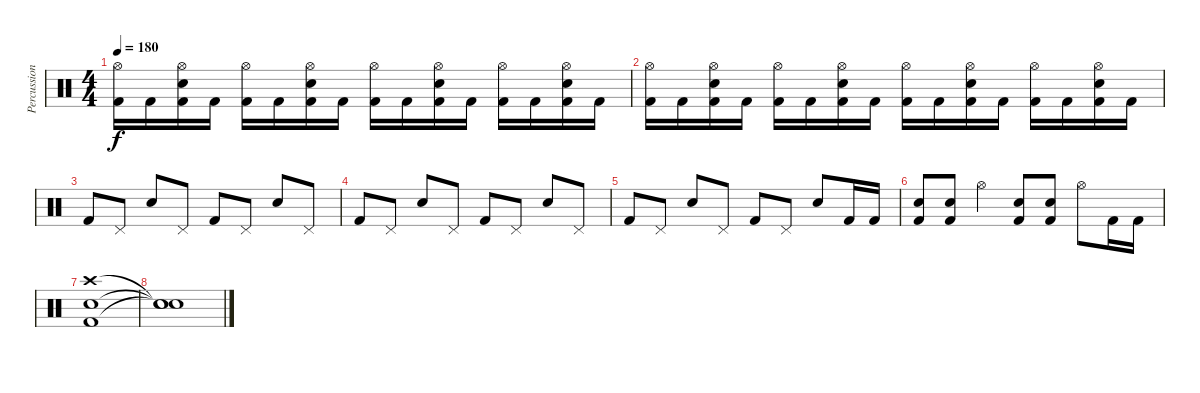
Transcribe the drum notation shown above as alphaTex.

\track ("Percussion" "Percussion") {instrument percussion}
\staff {score}
\articulation defaults
\ts (4 4)
\tempo 180
\clef neutral
\ks c
("Hi-Hat (open)" "Kick (hit) 2").16{dy f} "Kick (hit) 2".16 ("Hi-Hat (open)" "Electric Snare (hit)" "Kick (hit) 2").16 "Kick (hit) 2".16 ("Hi-Hat (open)" "Kick (hit) 2").16 "Kick (hit) 2".16 ("Hi-Hat (open)" "Electric Snare (hit)" "Kick (hit) 2").16 "Kick (hit) 2".16 ("Hi-Hat (open)" "Kick (hit) 2").16 "Kick (hit) 2".16 ("Hi-Hat (open)" "Electric Snare (hit)" "Kick (hit) 2").16 "Kick (hit) 2".16 ("Hi-Hat (open)" "Kick (hit) 2").16 "Kick (hit) 2".16 ("Hi-Hat (open)" "Electric Snare (hit)" "Kick (hit) 2").16 "Kick (hit) 2".16 |
("Hi-Hat (open)" "Kick (hit) 2").16 "Kick (hit) 2".16 ("Hi-Hat (open)" "Electric Snare (hit)" "Kick (hit) 2").16 "Kick (hit) 2".16 ("Hi-Hat (open)" "Kick (hit) 2").16 "Kick (hit) 2".16 ("Hi-Hat (open)" "Electric Snare (hit)" "Kick (hit) 2").16 "Kick (hit) 2".16 ("Hi-Hat (open)" "Kick (hit) 2").16 "Kick (hit) 2".16 ("Hi-Hat (open)" "Electric Snare (hit)" "Kick (hit) 2").16 "Kick (hit) 2".16 ("Hi-Hat (open)" "Kick (hit) 2").16 "Kick (hit) 2".16 ("Hi-Hat (open)" "Electric Snare (hit)" "Kick (hit) 2").16 "Kick (hit) 2".16 |
"Kick (hit) 2".8 "Pedal Hi-Hat (hit)".8 "Electric Snare (hit)".8 "Pedal Hi-Hat (hit)".8 "Kick (hit) 2".8 "Pedal Hi-Hat (hit)".8 "Electric Snare (hit)".8 "Pedal Hi-Hat (hit)".8 |
"Kick (hit) 2".8 "Pedal Hi-Hat (hit)".8 "Electric Snare (hit)".8 "Pedal Hi-Hat (hit)".8 "Kick (hit) 2".8 "Pedal Hi-Hat (hit)".8 "Electric Snare (hit)".8 "Pedal Hi-Hat (hit)".8 |
"Kick (hit) 2".8 "Pedal Hi-Hat (hit)".8 "Electric Snare (hit)".8 "Pedal Hi-Hat (hit)".8 "Kick (hit) 2".8 "Pedal Hi-Hat (hit)".8 "Electric Snare (hit)".8 "Kick (hit) 2".16 "Kick (hit) 2".16 |
("Electric Snare (hit)" "Kick (hit) 2").8 ("Electric Snare (hit)" "Kick (hit) 2").8 "Hi-Hat (open)".4 ("Electric Snare (hit)" "Kick (hit) 2").8 ("Electric Snare (hit)" "Kick (hit) 2").8 "Hi-Hat (open)".8 "Kick (hit) 2".16 "Kick (hit) 2".16 |
("Crash high (hit)" "Electric Snare (hit)" "Kick (hit) 2").1 |
("Snare (hit)"{t} "Snare (hit)"{t} "Snare (hit)"{t}).1
